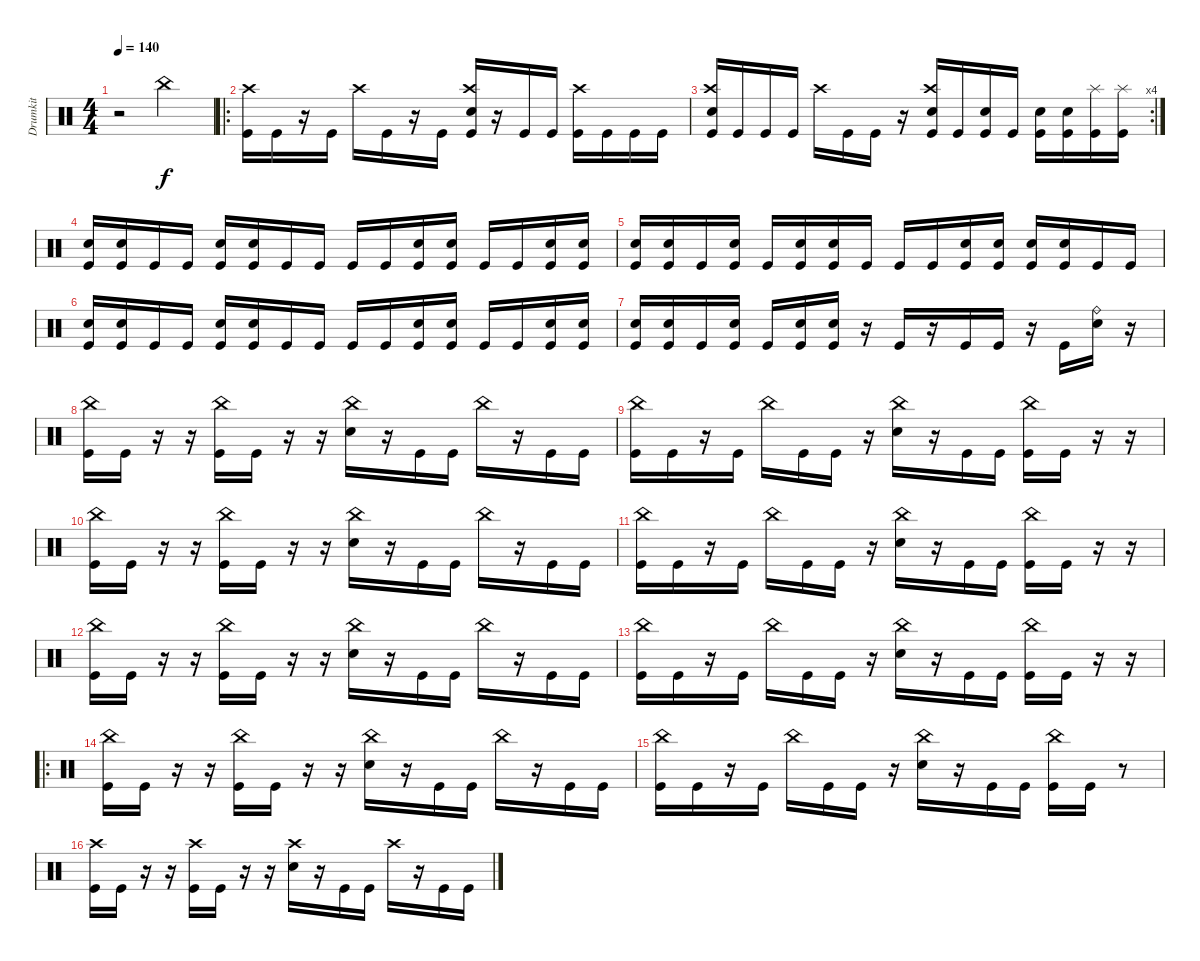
\track ("Drumkit" "Drumkit") {instrument percussion}
\staff {score}
\articulation defaults
\ts (4 4)
\tempo 140
\clef neutral
\ks c
r.2{dy f} "China (hit)".2 |
\ro
("Kick (hit)" "Crash high (hit)").16 "Kick (hit)".16 r.16 "Kick (hit)".16 "Crash high (hit)".16 "Kick (hit)".16 r.16 "Kick (hit)".16 ("Kick (hit)" "Snare (hit) 2" "Crash high (hit)").16 r.16 "Kick (hit)".16 "Kick (hit)".16 ("Kick (hit)" "Crash high (hit)").16 "Kick (hit)".16 "Kick (hit)".16 "Kick (hit)".16 |
\rc 4
("Kick (hit)" "Snare (hit) 2" "Crash high (hit)").16 "Kick (hit)".16 "Kick (hit)".16 "Kick (hit)".16 "Crash high (hit)".16 "Kick (hit)".16 "Kick (hit)".16 r.16 ("Kick (hit)" "Snare (hit) 2" "Crash high (hit)").16 "Kick (hit)".16 ("Snare (hit) 2" "Kick (hit)").16 "Kick (hit)".16 ("Kick (hit)" "Snare (hit) 2").16 ("Kick (hit)" "Snare (hit) 2").16 ("Kick (hit)" "Splash (hit)").16 ("Kick (hit)" "Splash (hit)").16 |
("Kick (hit)" "Snare (hit) 2").16 ("Kick (hit)" "Snare (hit) 2").16 "Kick (hit)".16 "Kick (hit)".16 ("Kick (hit)" "Snare (hit) 2").16 ("Kick (hit)" "Snare (hit) 2").16 "Kick (hit)".16 "Kick (hit)".16 "Kick (hit)".16 "Kick (hit)".16 ("Kick (hit)" "Snare (hit) 2").16 ("Kick (hit)" "Snare (hit) 2").16 "Kick (hit)".16 "Kick (hit)".16 ("Kick (hit)" "Snare (hit) 2").16 ("Kick (hit)" "Snare (hit) 2").16 |
("Kick (hit)" "Snare (hit) 2").16 ("Kick (hit)" "Snare (hit) 2").16 "Kick (hit)".16 ("Kick (hit)" "Snare (hit) 2").16 "Kick (hit)".16 ("Kick (hit)" "Snare (hit) 2").16 ("Kick (hit)" "Snare (hit) 2").16 "Kick (hit)".16 "Kick (hit)".16 "Kick (hit)".16 ("Kick (hit)" "Snare (hit) 2").16 ("Kick (hit)" "Snare (hit) 2").16 ("Kick (hit)" "Snare (hit) 2").16 ("Kick (hit)" "Snare (hit) 2").16 "Kick (hit)".16 "Kick (hit)".16 |
("Kick (hit)" "Snare (hit) 2").16 ("Kick (hit)" "Snare (hit) 2").16 "Kick (hit)".16 "Kick (hit)".16 ("Kick (hit)" "Snare (hit) 2").16 ("Kick (hit)" "Snare (hit) 2").16 "Kick (hit)".16 "Kick (hit)".16 "Kick (hit)".16 "Kick (hit)".16 ("Kick (hit)" "Snare (hit) 2").16 ("Kick (hit)" "Snare (hit) 2").16 "Kick (hit)".16 "Kick (hit)".16 ("Kick (hit)" "Snare (hit) 2").16 ("Kick (hit)" "Snare (hit) 2").16 |
("Kick (hit)" "Snare (hit) 2").16 ("Kick (hit)" "Snare (hit) 2").16 "Kick (hit)".16 ("Kick (hit)" "Snare (hit) 2").16 "Kick (hit)".16 ("Kick (hit)" "Snare (hit) 2").16 ("Kick (hit)" "Snare (hit) 2").16 r.16 "Kick (hit)".16 r.16 "Kick (hit)".16 "Kick (hit)".16 r.16 "Kick (hit)".16 ("Snare (hit) 2" "Ride (bell)").16 r.16 |
("China (hit)" "Kick (hit)").16 "Kick (hit)".16 r.16 r.16 ("China (hit)" "Kick (hit)").16 "Kick (hit)".16 r.16 r.16 ("China (hit)" "Snare (hit) 2").16 r.16 "Kick (hit)".16 "Kick (hit)".16 "China (hit)".16 r.16 "Kick (hit)".16 "Kick (hit)".16 |
("China (hit)" "Kick (hit)").16 "Kick (hit)".16 r.16 "Kick (hit)".16 "China (hit)".16 "Kick (hit)".16 "Kick (hit)".16 r.16 ("China (hit)" "Snare (hit) 2").16 r.16 "Kick (hit)".16 "Kick (hit)".16 ("China (hit)" "Kick (hit)").16 "Kick (hit)".16 r.16 r.16 |
("China (hit)" "Kick (hit)").16 "Kick (hit)".16 r.16 r.16 ("China (hit)" "Kick (hit)").16 "Kick (hit)".16 r.16 r.16 ("China (hit)" "Snare (hit) 2").16 r.16 "Kick (hit)".16 "Kick (hit)".16 "China (hit)".16 r.16 "Kick (hit)".16 "Kick (hit)".16 |
("China (hit)" "Kick (hit)").16 "Kick (hit)".16 r.16 "Kick (hit)".16 "China (hit)".16 "Kick (hit)".16 "Kick (hit)".16 r.16 ("China (hit)" "Snare (hit) 2").16 r.16 "Kick (hit)".16 "Kick (hit)".16 ("China (hit)" "Kick (hit)").16 "Kick (hit)".16 r.16 r.16 |
("China (hit)" "Kick (hit)").16 "Kick (hit)".16 r.16 r.16 ("China (hit)" "Kick (hit)").16 "Kick (hit)".16 r.16 r.16 ("China (hit)" "Snare (hit) 2").16 r.16 "Kick (hit)".16 "Kick (hit)".16 "China (hit)".16 r.16 "Kick (hit)".16 "Kick (hit)".16 |
("China (hit)" "Kick (hit)").16 "Kick (hit)".16 r.16 "Kick (hit)".16 "China (hit)".16 "Kick (hit)".16 "Kick (hit)".16 r.16 ("China (hit)" "Snare (hit) 2").16 r.16 "Kick (hit)".16 "Kick (hit)".16 ("China (hit)" "Kick (hit)").16 "Kick (hit)".16 r.16 r.16 |
\ro
("China (hit)" "Kick (hit)").16 "Kick (hit)".16 r.16 r.16 ("China (hit)" "Kick (hit)").16 "Kick (hit)".16 r.16 r.16 ("China (hit)" "Snare (hit) 2").16 r.16 "Kick (hit)".16 "Kick (hit)".16 "China (hit)".16 r.16 "Kick (hit)".16 "Kick (hit)".16 |
("China (hit)" "Kick (hit)").16 "Kick (hit)".16 r.16 "Kick (hit)".16 "China (hit)".16 "Kick (hit)".16 "Kick (hit)".16 r.16 ("China (hit)" "Snare (hit) 2").16 r.16 "Kick (hit)".16 "Kick (hit)".16 ("China (hit)" "Kick (hit)").16 "Kick (hit)".16 r.8 |
("Crash high (hit)" "Kick (hit)").16 "Kick (hit)".16 r.16 r.16 ("Crash high (hit)" "Kick (hit)").16 "Kick (hit)".16 r.16 r.16 ("Crash high (hit)" "Snare (hit) 2").16 r.16 "Kick (hit)".16 "Kick (hit)".16 "Crash high (hit)".16 r.16 "Kick (hit)".16 "Kick (hit)".16
